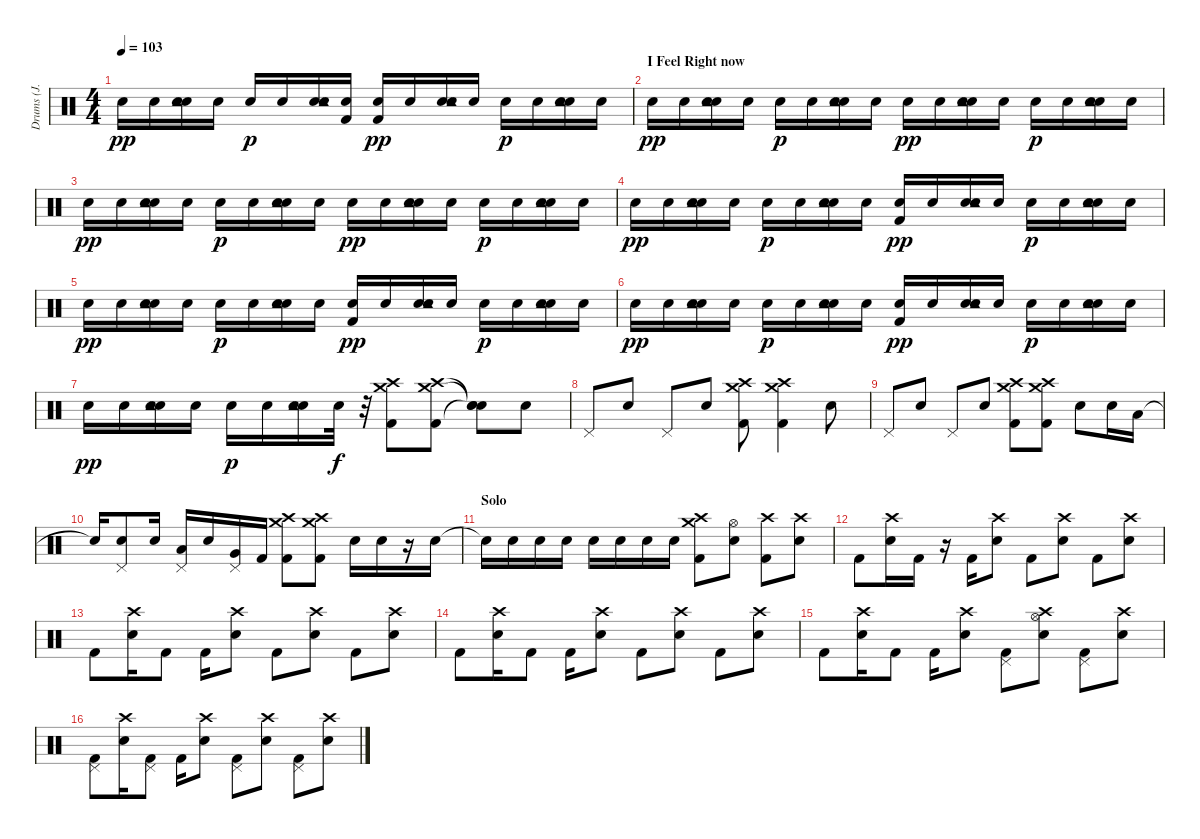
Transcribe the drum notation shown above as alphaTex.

\track ("Drums (J. Cramer)" "Drums (J. ") {instrument percussion}
\staff {score}
\articulation defaults
\ts (4 4)
\tempo 103
\clef neutral
\ks c "Snare (hit) 2".16{dy pp} "Snare (hit) 2".16
("Snare (hit) 2" "Tambourine (hit)" "Electric Snare (hit)").16 "Snare (hit) 2".16 "Snare (hit) 2".16{dy p} "Snare (hit) 2".16 ("Snare (hit) 2" "Tambourine (hit)" "Electric Snare (hit)").16 ("Snare (hit) 2" "Kick (hit) 2").16 ("Snare (hit) 2" "Kick (hit) 2").16{dy pp} "Snare (hit) 2".16 ("Snare (hit) 2" "Tambourine (hit)" "Electric Snare (hit)").16 "Snare (hit) 2".16 "Snare (hit) 2".16{dy p} "Snare (hit) 2".16 ("Snare (hit) 2" "Tambourine (hit)" "Electric Snare (hit)").16 "Snare (hit) 2".16 |
\section ("" "I Feel Right now")
"Snare (hit) 2".16{dy pp} "Snare (hit) 2".16 ("Snare (hit) 2" "Tambourine (hit)" "Electric Snare (hit)").16 "Snare (hit) 2".16 "Snare (hit) 2".16{dy p} "Snare (hit) 2".16 ("Snare (hit) 2" "Tambourine (hit)" "Electric Snare (hit)").16 "Snare (hit) 2".16 "Snare (hit) 2".16{dy pp} "Snare (hit) 2".16 ("Snare (hit) 2" "Tambourine (hit)" "Electric Snare (hit)").16 "Snare (hit) 2".16 "Snare (hit) 2".16{dy p} "Snare (hit) 2".16 ("Snare (hit) 2" "Tambourine (hit)" "Electric Snare (hit)").16 "Snare (hit) 2".16 |
"Snare (hit) 2".16{dy pp} "Snare (hit) 2".16 ("Snare (hit) 2" "Tambourine (hit)" "Electric Snare (hit)").16 "Snare (hit) 2".16 "Snare (hit) 2".16{dy p} "Snare (hit) 2".16 ("Snare (hit) 2" "Tambourine (hit)" "Electric Snare (hit)").16 "Snare (hit) 2".16 "Snare (hit) 2".16{dy pp} "Snare (hit) 2".16 ("Snare (hit) 2" "Tambourine (hit)" "Electric Snare (hit)").16 "Snare (hit) 2".16 "Snare (hit) 2".16{dy p} "Snare (hit) 2".16 ("Snare (hit) 2" "Tambourine (hit)" "Electric Snare (hit)").16 "Snare (hit) 2".16 |
"Snare (hit) 2".16{dy pp} "Snare (hit) 2".16 ("Snare (hit) 2" "Tambourine (hit)" "Electric Snare (hit)").16 "Snare (hit) 2".16 "Snare (hit) 2".16{dy p} "Snare (hit) 2".16 ("Snare (hit) 2" "Tambourine (hit)" "Electric Snare (hit)").16 "Snare (hit) 2".16 ("Snare (hit) 2" "Kick (hit) 2").16{dy pp} "Snare (hit) 2".16 ("Snare (hit) 2" "Tambourine (hit)" "Electric Snare (hit)").16 "Snare (hit) 2".16 "Snare (hit) 2".16{dy p} "Snare (hit) 2".16 ("Snare (hit) 2" "Tambourine (hit)" "Electric Snare (hit)").16 "Snare (hit) 2".16 |
"Snare (hit) 2".16{dy pp} "Snare (hit) 2".16 ("Snare (hit) 2" "Tambourine (hit)" "Electric Snare (hit)").16 "Snare (hit) 2".16 "Snare (hit) 2".16{dy p} "Snare (hit) 2".16 ("Snare (hit) 2" "Tambourine (hit)" "Electric Snare (hit)").16 "Snare (hit) 2".16 ("Snare (hit) 2" "Kick (hit) 2").16{dy pp} "Snare (hit) 2".16 ("Snare (hit) 2" "Tambourine (hit)" "Electric Snare (hit)").16 "Snare (hit) 2".16 "Snare (hit) 2".16{dy p} "Snare (hit) 2".16 ("Snare (hit) 2" "Tambourine (hit)" "Electric Snare (hit)").16 "Snare (hit) 2".16 |
"Snare (hit) 2".16{dy pp} "Snare (hit) 2".16 ("Snare (hit) 2" "Tambourine (hit)" "Electric Snare (hit)").16 "Snare (hit) 2".16 "Snare (hit) 2".16{dy p} "Snare (hit) 2".16 ("Snare (hit) 2" "Tambourine (hit)" "Electric Snare (hit)").16 "Snare (hit) 2".16 ("Snare (hit) 2" "Kick (hit) 2").16{dy pp} "Snare (hit) 2".16 ("Snare (hit) 2" "Tambourine (hit)" "Electric Snare (hit)").16 "Snare (hit) 2".16 "Snare (hit) 2".16{dy p} "Snare (hit) 2".16 ("Snare (hit) 2" "Tambourine (hit)" "Electric Snare (hit)").16 "Snare (hit) 2".16 |
"Snare (hit) 2".16{dy pp} "Snare (hit) 2".16 ("Snare (hit) 2" "Tambourine (hit)" "Electric Snare (hit)").16 "Snare (hit) 2".16 "Snare (hit) 2".16{dy p} "Snare (hit) 2".16 ("Snare (hit) 2" "Tambourine (hit)" "Electric Snare (hit)").16 "Electric Snare (hit)".32{dy f} r.32 ("Kick (hit) 2" "Crash medium (hit)" "Crash high (hit)").8 ("Kick (hit) 2" "Crash medium (hit)" "Crash high (hit)").8 ("Snare (hit)"{t} "Snare (hit)"{t} "Snare (hit)"{t}).8 "Electric Snare (hit)".8{bd 120} |
"Pedal Hi-Hat (hit)".8 "Electric Snare (hit)".8{bd 120} "Pedal Hi-Hat (hit)".8 "Electric Snare (hit)".8 ("Kick (hit) 2" "Crash medium (hit)" "Crash high (hit)").8 ("Kick (hit) 2" "Crash medium (hit)" "Crash high (hit)").4 "Electric Snare (hit)".8 |
"Pedal Hi-Hat (hit)".8 "Electric Snare (hit)".8 "Pedal Hi-Hat (hit)".8 "Electric Snare (hit)".8 ("Kick (hit) 2" "Crash medium (hit)" "Crash high (hit)").8 ("Kick (hit) 2" "Crash medium (hit)" "Crash high (hit)").8 "Electric Snare (hit)".8 "Electric Snare (hit)".16 "Low Tom (hit)".16 |
"Electric Snare (hit)"{t}.16 ("Pedal Hi-Hat (hit)" "Electric Snare (hit)").8 "Electric Snare (hit)".16 ("Pedal Hi-Hat (hit)" "Low Tom (hit)").16 "Electric Snare (hit)".16 ("Pedal Hi-Hat (hit)" "Very Low Tom (hit)").16 "Kick (hit) 2".16 ("Kick (hit) 2" "Crash medium (hit)" "Crash high (hit)").8 ("Kick (hit) 2" "Crash medium (hit)" "Crash high (hit)").8 "Electric Snare (hit)".16 "Electric Snare (hit)".16 r.16 "Electric Snare (hit)".16 |
\section ("" "Solo")
"Electric Snare (hit)"{t}.16 "Electric Snare (hit)".16 "Electric Snare (hit)".16 "Electric Snare (hit)".16 "Electric Snare (hit)".16 "Electric Snare (hit)".16 "Electric Snare (hit)".16 "Electric Snare (hit)".16 ("Crash medium (hit)" "Kick (hit) 2" "Crash high (hit)").8 ("Hi-Hat (open)" "Electric Snare (hit)").8 ("Kick (hit) 2" "Crash high (hit)").8 ("Electric Snare (hit)" "Crash high (hit)").8 |
"Kick (hit) 2".8 ("Electric Snare (hit)" "Crash high (hit)").16 "Kick (hit) 2".16 r.16 "Kick (hit) 2".16 ("Electric Snare (hit)" "Crash high (hit)").8 "Kick (hit) 2".8 ("Electric Snare (hit)" "Crash high (hit)").8 "Kick (hit) 2".8 ("Electric Snare (hit)" "Crash high (hit)").8 |
"Kick (hit) 2".8 ("Electric Snare (hit)" "Crash high (hit)").16 "Kick (hit) 2".8 "Kick (hit) 2".16 ("Electric Snare (hit)" "Crash high (hit)").8 "Kick (hit) 2".8 ("Electric Snare (hit)" "Crash high (hit)").8 "Kick (hit) 2".8 ("Electric Snare (hit)" "Crash high (hit)").8 |
"Kick (hit) 2".8 ("Electric Snare (hit)" "Crash high (hit)").16 "Kick (hit) 2".8 "Kick (hit) 2".16 ("Electric Snare (hit)" "Crash high (hit)").8 "Kick (hit) 2".8 ("Electric Snare (hit)" "Crash high (hit)").8 "Kick (hit) 2".8 ("Electric Snare (hit)" "Crash high (hit)").8 |
"Kick (hit) 2".8 ("Electric Snare (hit)" "Crash high (hit)").16 "Kick (hit) 2".8 "Kick (hit) 2".16 ("Electric Snare (hit)" "Crash high (hit)").8 ("Pedal Hi-Hat (hit)" "Kick (hit) 2").8 ("Hi-Hat (open)" "Electric Snare (hit)" "Crash high (hit)").8 ("Pedal Hi-Hat (hit)" "Kick (hit) 2").8 ("Electric Snare (hit)" "Crash high (hit)").8 |
("Pedal Hi-Hat (hit)" "Kick (hit) 2").8 ("Electric Snare (hit)" "Crash high (hit)").16 ("Pedal Hi-Hat (hit)" "Kick (hit) 2").8 "Kick (hit) 2".16 ("Electric Snare (hit)" "Crash high (hit)").8 ("Pedal Hi-Hat (hit)" "Kick (hit) 2").8 ("Electric Snare (hit)" "Crash high (hit)").8 ("Pedal Hi-Hat (hit)" "Kick (hit) 2").8 ("Electric Snare (hit)" "Crash high (hit)").8
